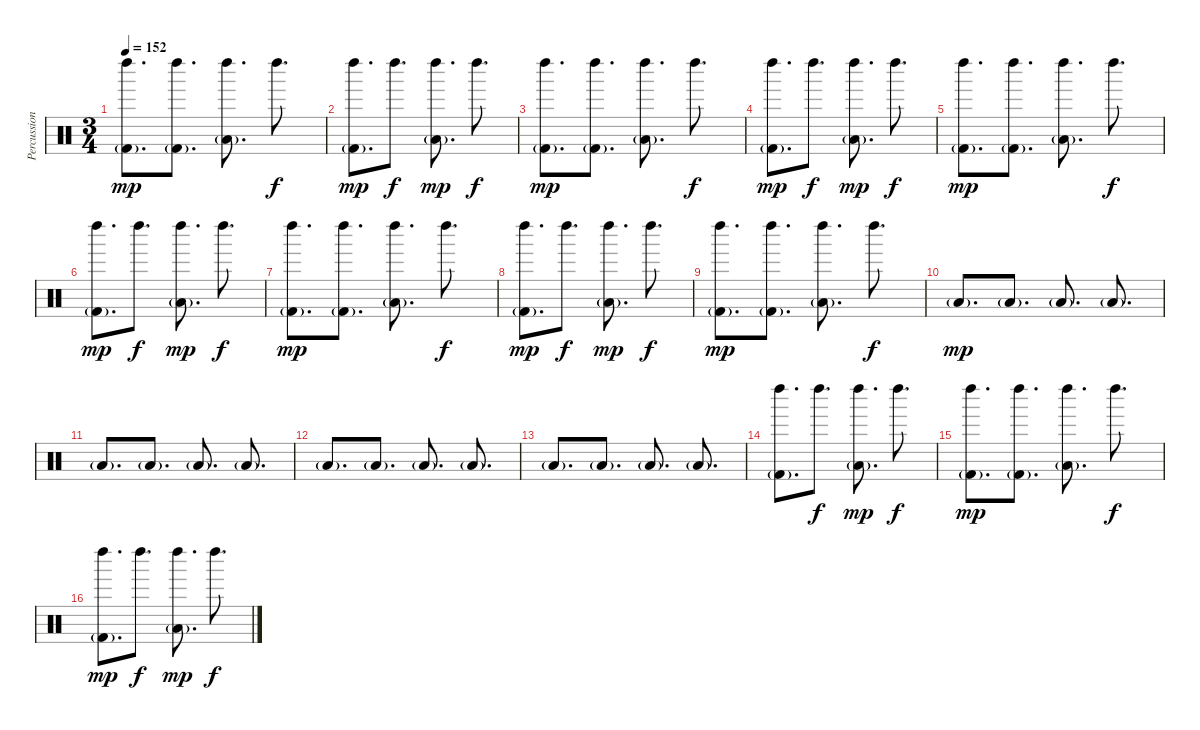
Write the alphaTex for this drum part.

\track ("Percussion" "Percussion") {instrument percussion}
\staff {score}
\articulation defaults
\ts (3 4)
\tempo 152
\clef neutral
\ks c
("Left Maraca (hit)" "Kick (hit) 2"{g}).8{d dy mp} ("Left Maraca (hit)" "Kick (hit) 2"{g}).8{d} ("Left Maraca (hit)" "Low Tom (hit)"{g}).8{d} "Left Maraca (hit)".8{d dy f} |
("Left Maraca (hit)" "Kick (hit) 2"{g}).8{d dy mp} "Left Maraca (hit)".8{d dy f} ("Left Maraca (hit)" "Low Tom (hit)"{g}).8{d dy mp} "Left Maraca (hit)".8{d dy f} |
("Left Maraca (hit)" "Kick (hit) 2"{g}).8{d dy mp} ("Left Maraca (hit)" "Kick (hit) 2"{g}).8{d} ("Left Maraca (hit)" "Low Tom (hit)"{g}).8{d} "Left Maraca (hit)".8{d dy f} |
("Left Maraca (hit)" "Kick (hit) 2"{g}).8{d dy mp} "Left Maraca (hit)".8{d dy f} ("Left Maraca (hit)" "Low Tom (hit)"{g}).8{d dy mp} "Left Maraca (hit)".8{d dy f} |
("Left Maraca (hit)" "Kick (hit) 2"{g}).8{d dy mp} ("Left Maraca (hit)" "Kick (hit) 2"{g}).8{d} ("Left Maraca (hit)" "Low Tom (hit)"{g}).8{d} "Left Maraca (hit)".8{d dy f} |
("Left Maraca (hit)" "Kick (hit) 2"{g}).8{d dy mp} "Left Maraca (hit)".8{d dy f} ("Left Maraca (hit)" "Low Tom (hit)"{g}).8{d dy mp} "Left Maraca (hit)".8{d dy f} |
("Left Maraca (hit)" "Kick (hit) 2"{g}).8{d dy mp} ("Left Maraca (hit)" "Kick (hit) 2"{g}).8{d} ("Left Maraca (hit)" "Low Tom (hit)"{g}).8{d} "Left Maraca (hit)".8{d dy f} |
("Left Maraca (hit)" "Kick (hit) 2"{g}).8{d dy mp} "Left Maraca (hit)".8{d dy f} ("Left Maraca (hit)" "Low Tom (hit)"{g}).8{d dy mp} "Left Maraca (hit)".8{d dy f} |
("Left Maraca (hit)" "Kick (hit) 2"{g}).8{d dy mp} ("Left Maraca (hit)" "Kick (hit) 2"{g}).8{d} ("Left Maraca (hit)" "Low Tom (hit)"{g}).8{d} "Left Maraca (hit)".8{d dy f} |
"Low Floor Tom (hit)"{g}.8{d dy mp} "Low Floor Tom (hit)"{g}.8{d} "Low Floor Tom (hit)"{g}.8{d} "Low Floor Tom (hit)"{g}.8{d} |
"Low Floor Tom (hit)"{g}.8{d} "Low Floor Tom (hit)"{g}.8{d} "Low Floor Tom (hit)"{g}.8{d} "Low Floor Tom (hit)"{g}.8{d} |
"Low Floor Tom (hit)"{g}.8{d} "Low Floor Tom (hit)"{g}.8{d} "Low Floor Tom (hit)"{g}.8{d} "Low Floor Tom (hit)"{g}.8{d} |
"Low Floor Tom (hit)"{g}.8{d} "Low Floor Tom (hit)"{g}.8{d} "Low Floor Tom (hit)"{g}.8{d} "Low Floor Tom (hit)"{g}.8{d} |
("Left Maraca (hit)" "Kick (hit) 2"{g}).8{d} "Left Maraca (hit)".8{d dy f} ("Left Maraca (hit)" "Low Tom (hit)"{g}).8{d dy mp} "Left Maraca (hit)".8{d dy f} |
("Left Maraca (hit)" "Kick (hit) 2"{g}).8{d dy mp} ("Left Maraca (hit)" "Kick (hit) 2"{g}).8{d} ("Left Maraca (hit)" "Low Tom (hit)"{g}).8{d} "Left Maraca (hit)".8{d dy f} |
("Left Maraca (hit)" "Kick (hit) 2"{g}).8{d dy mp} "Left Maraca (hit)".8{d dy f} ("Left Maraca (hit)" "Low Tom (hit)"{g}).8{d dy mp} "Left Maraca (hit)".8{d dy f}
